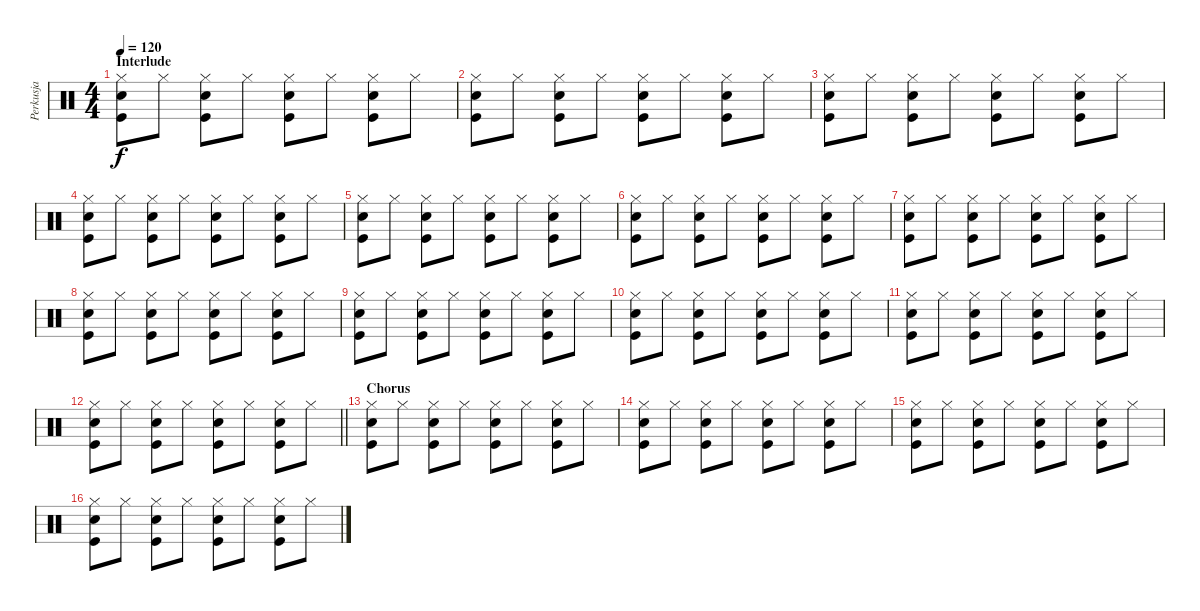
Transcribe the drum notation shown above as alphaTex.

\track ("Perkusja" "Perkusja") {instrument percussion}
\staff {score}
\articulation defaults
\ts (4 4)
\section ("" "Interlude")
\tempo 120
\clef neutral
\ks c
("Snare (hit) 2" "Kick (hit)" "Hi-Hat (closed)").8{dy f} "Hi-Hat (closed)".8 ("Kick (hit)" "Snare (hit) 2" "Hi-Hat (closed)").8 "Hi-Hat (closed)".8 ("Snare (hit) 2" "Kick (hit)" "Hi-Hat (closed)").8 "Hi-Hat (closed)".8 ("Kick (hit)" "Snare (hit) 2" "Hi-Hat (closed)").8 "Hi-Hat (closed)".8 |
("Snare (hit) 2" "Kick (hit)" "Hi-Hat (closed)").8 "Hi-Hat (closed)".8 ("Kick (hit)" "Snare (hit) 2" "Hi-Hat (closed)").8 "Hi-Hat (closed)".8 ("Snare (hit) 2" "Kick (hit)" "Hi-Hat (closed)").8 "Hi-Hat (closed)".8 ("Kick (hit)" "Snare (hit) 2" "Hi-Hat (closed)").8 "Hi-Hat (closed)".8 |
("Snare (hit) 2" "Kick (hit)" "Hi-Hat (closed)").8 "Hi-Hat (closed)".8 ("Kick (hit)" "Snare (hit) 2" "Hi-Hat (closed)").8 "Hi-Hat (closed)".8 ("Snare (hit) 2" "Kick (hit)" "Hi-Hat (closed)").8 "Hi-Hat (closed)".8 ("Kick (hit)" "Snare (hit) 2" "Hi-Hat (closed)").8 "Hi-Hat (closed)".8 |
("Snare (hit) 2" "Kick (hit)" "Hi-Hat (closed)").8 "Hi-Hat (closed)".8 ("Kick (hit)" "Snare (hit) 2" "Hi-Hat (closed)").8 "Hi-Hat (closed)".8 ("Snare (hit) 2" "Kick (hit)" "Hi-Hat (closed)").8 "Hi-Hat (closed)".8 ("Kick (hit)" "Snare (hit) 2" "Hi-Hat (closed)").8 "Hi-Hat (closed)".8 |
("Snare (hit) 2" "Kick (hit)" "Hi-Hat (closed)").8 "Hi-Hat (closed)".8 ("Kick (hit)" "Snare (hit) 2" "Hi-Hat (closed)").8 "Hi-Hat (closed)".8 ("Snare (hit) 2" "Kick (hit)" "Hi-Hat (closed)").8 "Hi-Hat (closed)".8 ("Kick (hit)" "Snare (hit) 2" "Hi-Hat (closed)").8 "Hi-Hat (closed)".8 |
("Snare (hit) 2" "Kick (hit)" "Hi-Hat (closed)").8 "Hi-Hat (closed)".8 ("Kick (hit)" "Snare (hit) 2" "Hi-Hat (closed)").8 "Hi-Hat (closed)".8 ("Snare (hit) 2" "Kick (hit)" "Hi-Hat (closed)").8 "Hi-Hat (closed)".8 ("Kick (hit)" "Snare (hit) 2" "Hi-Hat (closed)").8 "Hi-Hat (closed)".8 |
("Snare (hit) 2" "Kick (hit)" "Hi-Hat (closed)").8 "Hi-Hat (closed)".8 ("Kick (hit)" "Snare (hit) 2" "Hi-Hat (closed)").8 "Hi-Hat (closed)".8 ("Snare (hit) 2" "Kick (hit)" "Hi-Hat (closed)").8 "Hi-Hat (closed)".8 ("Kick (hit)" "Snare (hit) 2" "Hi-Hat (closed)").8 "Hi-Hat (closed)".8 |
("Snare (hit) 2" "Kick (hit)" "Hi-Hat (closed)").8 "Hi-Hat (closed)".8 ("Kick (hit)" "Snare (hit) 2" "Hi-Hat (closed)").8 "Hi-Hat (closed)".8 ("Snare (hit) 2" "Kick (hit)" "Hi-Hat (closed)").8 "Hi-Hat (closed)".8 ("Kick (hit)" "Snare (hit) 2" "Hi-Hat (closed)").8 "Hi-Hat (closed)".8 |
("Snare (hit) 2" "Kick (hit)" "Hi-Hat (closed)").8 "Hi-Hat (closed)".8 ("Kick (hit)" "Snare (hit) 2" "Hi-Hat (closed)").8 "Hi-Hat (closed)".8 ("Snare (hit) 2" "Kick (hit)" "Hi-Hat (closed)").8 "Hi-Hat (closed)".8 ("Kick (hit)" "Snare (hit) 2" "Hi-Hat (closed)").8 "Hi-Hat (closed)".8 |
("Snare (hit) 2" "Kick (hit)" "Hi-Hat (closed)").8 "Hi-Hat (closed)".8 ("Kick (hit)" "Snare (hit) 2" "Hi-Hat (closed)").8 "Hi-Hat (closed)".8 ("Snare (hit) 2" "Kick (hit)" "Hi-Hat (closed)").8 "Hi-Hat (closed)".8 ("Kick (hit)" "Snare (hit) 2" "Hi-Hat (closed)").8 "Hi-Hat (closed)".8 |
("Snare (hit) 2" "Kick (hit)" "Hi-Hat (closed)").8 "Hi-Hat (closed)".8 ("Kick (hit)" "Snare (hit) 2" "Hi-Hat (closed)").8 "Hi-Hat (closed)".8 ("Snare (hit) 2" "Kick (hit)" "Hi-Hat (closed)").8 "Hi-Hat (closed)".8 ("Kick (hit)" "Snare (hit) 2" "Hi-Hat (closed)").8 "Hi-Hat (closed)".8 |
\barLineRight lightlight
("Snare (hit) 2" "Kick (hit)" "Hi-Hat (closed)").8 "Hi-Hat (closed)".8 ("Kick (hit)" "Snare (hit) 2" "Hi-Hat (closed)").8 "Hi-Hat (closed)".8 ("Snare (hit) 2" "Kick (hit)" "Hi-Hat (closed)").8 "Hi-Hat (closed)".8 ("Kick (hit)" "Snare (hit) 2" "Hi-Hat (closed)").8 "Hi-Hat (closed)".8 |
\section ("" "Chorus")
("Snare (hit) 2" "Kick (hit)" "Hi-Hat (closed)").8 "Hi-Hat (closed)".8 ("Kick (hit)" "Snare (hit) 2" "Hi-Hat (closed)").8 "Hi-Hat (closed)".8 ("Snare (hit) 2" "Kick (hit)" "Hi-Hat (closed)").8 "Hi-Hat (closed)".8 ("Kick (hit)" "Snare (hit) 2" "Hi-Hat (closed)").8 "Hi-Hat (closed)".8 |
("Snare (hit) 2" "Kick (hit)" "Hi-Hat (closed)").8 "Hi-Hat (closed)".8 ("Kick (hit)" "Snare (hit) 2" "Hi-Hat (closed)").8 "Hi-Hat (closed)".8 ("Snare (hit) 2" "Kick (hit)" "Hi-Hat (closed)").8 "Hi-Hat (closed)".8 ("Kick (hit)" "Snare (hit) 2" "Hi-Hat (closed)").8 "Hi-Hat (closed)".8 |
("Snare (hit) 2" "Kick (hit)" "Hi-Hat (closed)").8 "Hi-Hat (closed)".8 ("Kick (hit)" "Snare (hit) 2" "Hi-Hat (closed)").8 "Hi-Hat (closed)".8 ("Snare (hit) 2" "Kick (hit)" "Hi-Hat (closed)").8 "Hi-Hat (closed)".8 ("Kick (hit)" "Snare (hit) 2" "Hi-Hat (closed)").8 "Hi-Hat (closed)".8 |
("Snare (hit) 2" "Kick (hit)" "Hi-Hat (closed)").8 "Hi-Hat (closed)".8 ("Kick (hit)" "Snare (hit) 2" "Hi-Hat (closed)").8 "Hi-Hat (closed)".8 ("Snare (hit) 2" "Kick (hit)" "Hi-Hat (closed)").8 "Hi-Hat (closed)".8 ("Kick (hit)" "Snare (hit) 2" "Hi-Hat (closed)").8 "Hi-Hat (closed)".8
